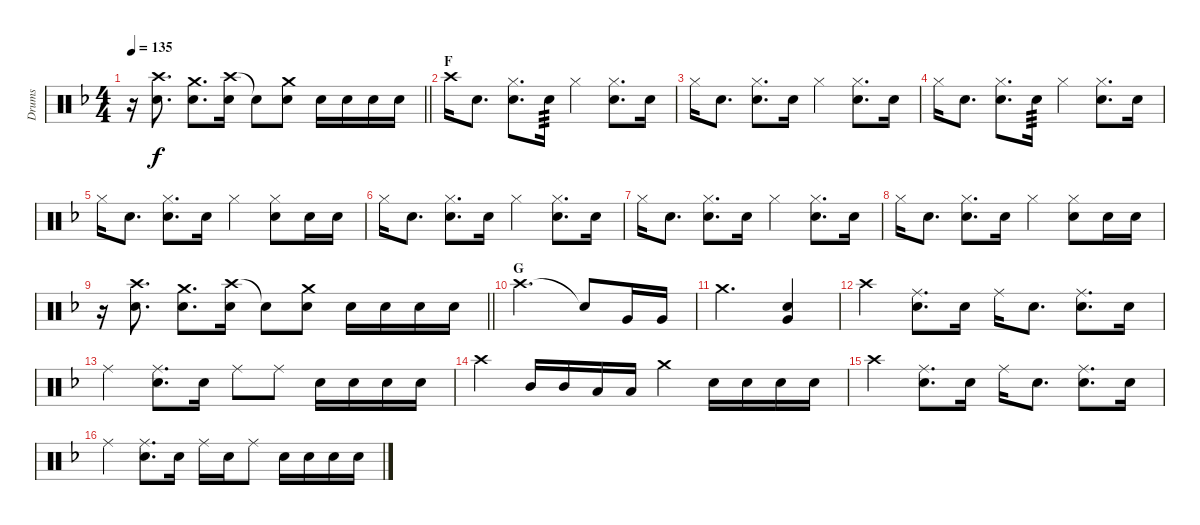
\track ("Drums" "Drums") {instrument percussion}
\staff {score}
\articulation defaults
\ts (4 4)
\tempo 135
\clef neutral
\barLineRight lightlight
\ks f
r.16{dy f} ("Crash high (hit)" "Snare (hit) 2").8{d} ("Crash medium (hit)" "Snare (hit) 2").8{d} ("Crash high (hit)" "Snare (hit) 2").16 "Snare (hit)"{t}.8 ("Crash medium (hit)" "Snare (hit) 2").8 "Snare (hit) 2".16 "Snare (hit) 2".16 "Snare (hit) 2".16 "Snare (hit) 2".16 |
\section ("" "F")
"Crash high (hit)".16 "Snare (hit) 2".8{d} ("Hi-Hat (closed)" "Snare (hit) 2").8{d} "Snare (hit) 2".16{tp 3} "Hi-Hat (closed)".4 ("Hi-Hat (closed)" "Snare (hit) 2").8{d} "Snare (hit) 2".16 |
"Hi-Hat (closed)".16 "Snare (hit) 2".8{d} ("Hi-Hat (closed)" "Snare (hit) 2").8{d} "Snare (hit) 2".16 "Hi-Hat (closed)".4 ("Hi-Hat (closed)" "Snare (hit) 2").8{d} "Snare (hit) 2".16 |
"Hi-Hat (closed)".16 "Snare (hit) 2".8{d} ("Hi-Hat (closed)" "Snare (hit) 2").8{d} "Snare (hit) 2".16{tp 3} "Hi-Hat (closed)".4 ("Hi-Hat (closed)" "Snare (hit) 2").8{d} "Snare (hit) 2".16 |
"Hi-Hat (closed)".16 "Snare (hit) 2".8{d} ("Hi-Hat (closed)" "Snare (hit) 2").8{d} "Snare (hit) 2".16 "Hi-Hat (closed)".4 ("Hi-Hat (closed)" "Snare (hit) 2").8 "Snare (hit) 2".16 "Snare (hit) 2".16 |
"Hi-Hat (closed)".16 "Snare (hit) 2".8{d} ("Hi-Hat (closed)" "Snare (hit) 2").8{d} "Snare (hit) 2".16 "Hi-Hat (closed)".4 ("Hi-Hat (closed)" "Snare (hit) 2").8{d} "Snare (hit) 2".16 |
"Hi-Hat (closed)".16 "Snare (hit) 2".8{d} ("Hi-Hat (closed)" "Snare (hit) 2").8{d} "Snare (hit) 2".16 "Hi-Hat (closed)".4 ("Hi-Hat (closed)" "Snare (hit) 2").8{d} "Snare (hit) 2".16 |
"Hi-Hat (closed)".16 "Snare (hit) 2".8{d} ("Hi-Hat (closed)" "Snare (hit) 2").8{d} "Snare (hit) 2".16 "Hi-Hat (closed)".4 ("Hi-Hat (closed)" "Snare (hit) 2").8 "Snare (hit) 2".16 "Snare (hit) 2".16 |
\barLineRight lightlight
r.16 ("Crash high (hit)" "Snare (hit) 2").8{d} ("Crash medium (hit)" "Snare (hit) 2").8{d} ("Crash high (hit)" "Snare (hit) 2").16 "Snare (hit)"{t}.8 ("Crash medium (hit)" "Snare (hit) 2").8 "Snare (hit) 2".16 "Snare (hit) 2".16 "Snare (hit) 2".16 "Snare (hit) 2".16 |
\section ("" "G")
"Crash high (hit)".2{d} "Snare (hit)"{t}.8 "Very Low Tom (hit)".16 "Very Low Tom (hit)".16 |
"Crash medium (hit)".2{d} ("Snare (hit) 2" "Very Low Tom (hit)").4 |
"Crash high (hit)".4 ("Ride (middle)" "Snare (hit) 2").8{d} "Snare (hit) 2".16 "Ride (middle)".16 "Snare (hit) 2".8{d} ("Ride (middle)" "Snare (hit) 2").8{d} "Snare (hit) 2".16 |
"Ride (middle)".4 ("Ride (middle)" "Snare (hit) 2").8{d} "Snare (hit) 2".16 "Ride (middle)".8 "Ride (middle)".8 "Snare (hit) 2".16 "Snare (hit) 2".16 "Snare (hit) 2".16 "Snare (hit) 2".16 |
"Crash high (hit)".4 "Mid Tom (hit)".16 "Mid Tom (hit)".16 "Low Tom (hit)".16 "Low Tom (hit)".16 "Crash medium (hit)".4 "Snare (hit) 2".16 "Snare (hit) 2".16 "Snare (hit) 2".16 "Snare (hit) 2".16 |
"Crash high (hit)".4 ("Ride (middle)" "Snare (hit) 2").8{d} "Snare (hit) 2".16 "Ride (middle)".16 "Snare (hit) 2".8{d} ("Ride (middle)" "Snare (hit) 2").8{d} "Snare (hit) 2".16 |
"Ride (middle)".4 ("Ride (middle)" "Snare (hit) 2").8{d} "Snare (hit) 2".16 "Ride (middle)".16 "Snare (hit) 2".16 "Ride (middle)".8 "Snare (hit) 2".16 "Snare (hit) 2".16 "Snare (hit) 2".16 "Snare (hit) 2".16
